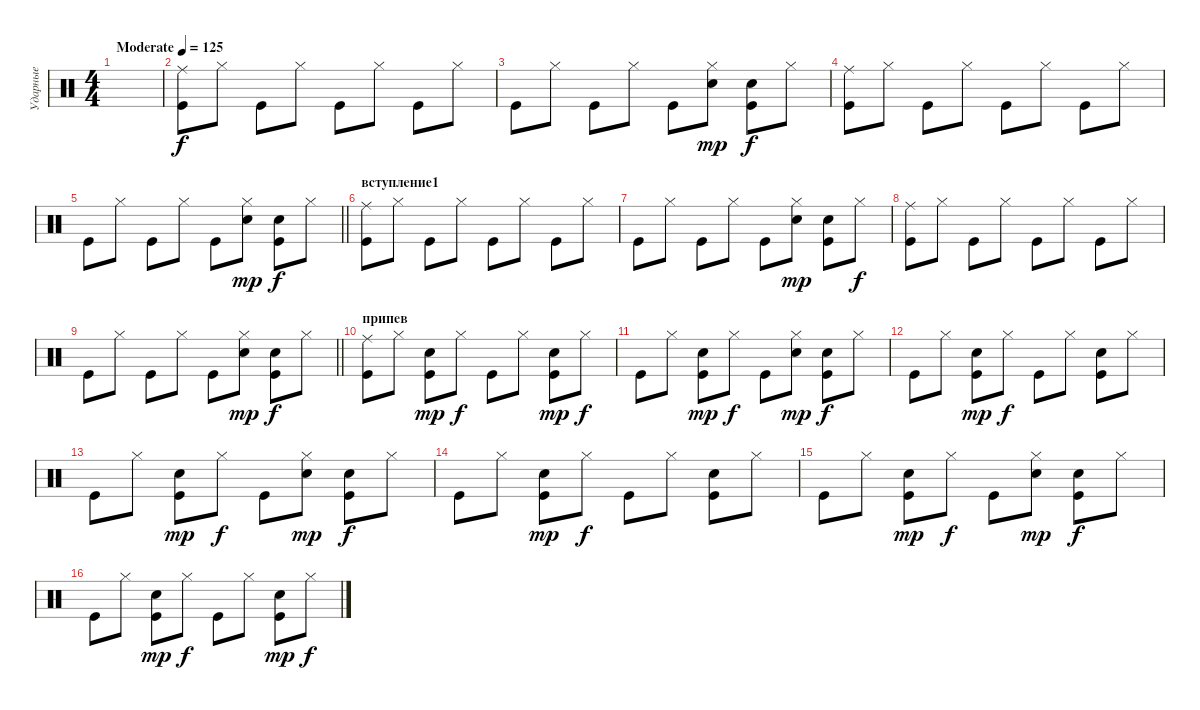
\track ("Ударные" "Ударные") {instrument percussion}
\staff {score}
\articulation defaults
\ts (4 4)
\tempo (125 "Moderate")
\clef neutral
\ks c
|
("Ride (middle)" "Kick (hit)").8 "Hi-Hat (closed)".8 "Kick (hit)".8 "Hi-Hat (closed)".8 "Kick (hit)".8 "Hi-Hat (closed)".8 "Kick (hit)".8 "Hi-Hat (closed)".8 |
"Kick (hit)".8 "Hi-Hat (closed)".8 "Kick (hit)".8 "Hi-Hat (closed)".8 "Kick (hit)".8 ("Hand Clap (hit)" "Hi-Hat (closed)").8{dy mp} ("Hand Clap (hit)" "Kick (hit)").8{dy f} "Hi-Hat (closed)".8 |
("Ride (middle)" "Kick (hit)").8 "Hi-Hat (closed)".8 "Kick (hit)".8 "Hi-Hat (closed)".8 "Kick (hit)".8 "Hi-Hat (closed)".8 "Kick (hit)".8 "Hi-Hat (closed)".8 |
\barLineRight lightlight "Kick (hit)".8 "Hi-Hat (closed)".8 "Kick (hit)".8 "Hi-Hat (closed)".8 "Kick (hit)".8
("Hand Clap (hit)" "Hi-Hat (closed)").8{dy mp} ("Hand Clap (hit)" "Kick (hit)").8{dy f} "Hi-Hat (closed)".8 |
\section ("" "вступление1")
("Ride (middle)" "Kick (hit)").8 "Hi-Hat (closed)".8 "Kick (hit)".8 "Hi-Hat (closed)".8 "Kick (hit)".8 "Hi-Hat (closed)".8 "Kick (hit)".8 "Hi-Hat (closed)".8 |
"Kick (hit)".8 "Hi-Hat (closed)".8 "Kick (hit)".8 "Hi-Hat (closed)".8 "Kick (hit)".8 ("Hand Clap (hit)" "Hi-Hat (closed)").8{dy mp} ("Hand Clap (hit)" "Kick (hit)").8 "Hi-Hat (closed)".8{dy f} |
("Ride (middle)" "Kick (hit)").8 "Hi-Hat (closed)".8 "Kick (hit)".8 "Hi-Hat (closed)".8 "Kick (hit)".8 "Hi-Hat (closed)".8 "Kick (hit)".8 "Hi-Hat (closed)".8 |
\barLineRight lightlight "Kick (hit)".8 "Hi-Hat (closed)".8 "Kick (hit)".8 "Hi-Hat (closed)".8 "Kick (hit)".8
("Hand Clap (hit)" "Hi-Hat (closed)").8{dy mp} ("Hand Clap (hit)" "Kick (hit)").8{dy f} "Hi-Hat (closed)".8 |
\section ("" "припев")
("Ride (middle)" "Kick (hit)").8 "Hi-Hat (closed)".8 ("Hand Clap (hit)" "Kick (hit)").8{dy mp} "Hi-Hat (closed)".8{dy f} "Kick (hit)".8 "Hi-Hat (closed)".8 ("Hand Clap (hit)" "Kick (hit)").8{dy mp} "Hi-Hat (closed)".8{dy f} |
"Kick (hit)".8 "Hi-Hat (closed)".8 ("Hand Clap (hit)" "Kick (hit)").8{dy mp} "Hi-Hat (closed)".8{dy f} "Kick (hit)".8 ("Hand Clap (hit)" "Hi-Hat (closed)").8{dy mp} ("Hand Clap (hit)" "Kick (hit)").8{dy f} "Hi-Hat (closed)".8 |
"Kick (hit)".8 "Hi-Hat (closed)".8 ("Hand Clap (hit)" "Kick (hit)").8{dy mp} "Hi-Hat (closed)".8{dy f} "Kick (hit)".8 "Hi-Hat (closed)".8 ("Hand Clap (hit)" "Kick (hit)").8 "Hi-Hat (closed)".8 |
"Kick (hit)".8 "Hi-Hat (closed)".8 ("Hand Clap (hit)" "Kick (hit)").8{dy mp} "Hi-Hat (closed)".8{dy f} "Kick (hit)".8 ("Hand Clap (hit)" "Hi-Hat (closed)").8{dy mp} ("Hand Clap (hit)" "Kick (hit)").8{dy f} "Hi-Hat (closed)".8 |
"Kick (hit)".8 "Hi-Hat (closed)".8 ("Hand Clap (hit)" "Kick (hit)").8{dy mp} "Hi-Hat (closed)".8{dy f} "Kick (hit)".8 "Hi-Hat (closed)".8 ("Hand Clap (hit)" "Kick (hit)").8 "Hi-Hat (closed)".8 |
"Kick (hit)".8 "Hi-Hat (closed)".8 ("Hand Clap (hit)" "Kick (hit)").8{dy mp} "Hi-Hat (closed)".8{dy f} "Kick (hit)".8 ("Hand Clap (hit)" "Hi-Hat (closed)").8{dy mp} ("Hand Clap (hit)" "Kick (hit)").8{dy f} "Hi-Hat (closed)".8 |
"Kick (hit)".8 "Hi-Hat (closed)".8 ("Hand Clap (hit)" "Kick (hit)").8{dy mp} "Hi-Hat (closed)".8{dy f} "Kick (hit)".8 "Hi-Hat (closed)".8 ("Hand Clap (hit)" "Kick (hit)").8{dy mp} "Hi-Hat (closed)".8{dy f}
